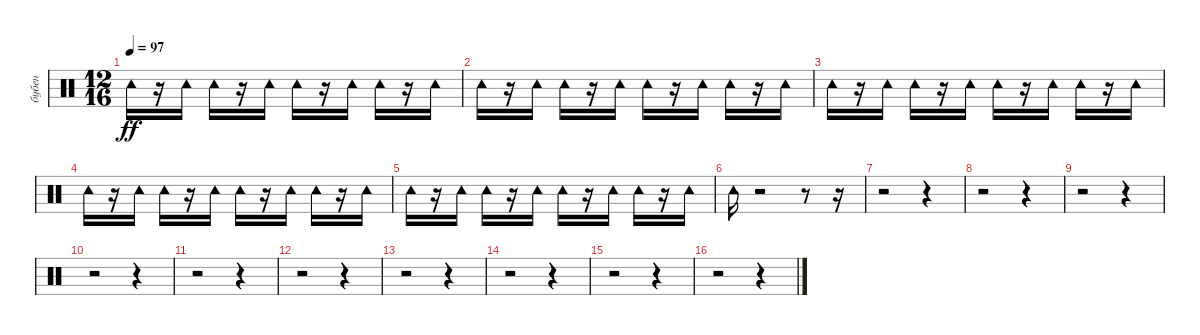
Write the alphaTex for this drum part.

\track ("бубен" "бубен") {instrument percussion}
\staff {score}
\articulation defaults
\ts (12 16)
\tempo 97
\clef neutral
\ks c "Tambourine (hit)".16{dy ff}
r.16 "Tambourine (hit)".16 "Tambourine (hit)".16 r.16 "Tambourine (hit)".16 "Tambourine (hit)".16 r.16 "Tambourine (hit)".16 "Tambourine (hit)".16 r.16 "Tambourine (hit)".16 |
"Tambourine (hit)".16 r.16 "Tambourine (hit)".16 "Tambourine (hit)".16 r.16 "Tambourine (hit)".16 "Tambourine (hit)".16 r.16 "Tambourine (hit)".16 "Tambourine (hit)".16 r.16 "Tambourine (hit)".16 |
"Tambourine (hit)".16 r.16 "Tambourine (hit)".16 "Tambourine (hit)".16 r.16 "Tambourine (hit)".16 "Tambourine (hit)".16 r.16 "Tambourine (hit)".16 "Tambourine (hit)".16 r.16 "Tambourine (hit)".16 |
"Tambourine (hit)".16 r.16 "Tambourine (hit)".16 "Tambourine (hit)".16 r.16 "Tambourine (hit)".16 "Tambourine (hit)".16 r.16 "Tambourine (hit)".16 "Tambourine (hit)".16 r.16 "Tambourine (hit)".16 |
"Tambourine (hit)".16 r.16 "Tambourine (hit)".16 "Tambourine (hit)".16 r.16 "Tambourine (hit)".16 "Tambourine (hit)".16 r.16 "Tambourine (hit)".16 "Tambourine (hit)".16 r.16 "Tambourine (hit)".16 |
"Tambourine (hit)".16 r.2 r.8 r.16 |
r.2 r.4 |
r.2 r.4 |
r.2 r.4 |
r.2 r.4 |
r.2 r.4 |
r.2 r.4 |
r.2 r.4 |
r.2 r.4 |
r.2 r.4 |
r.2 r.4
